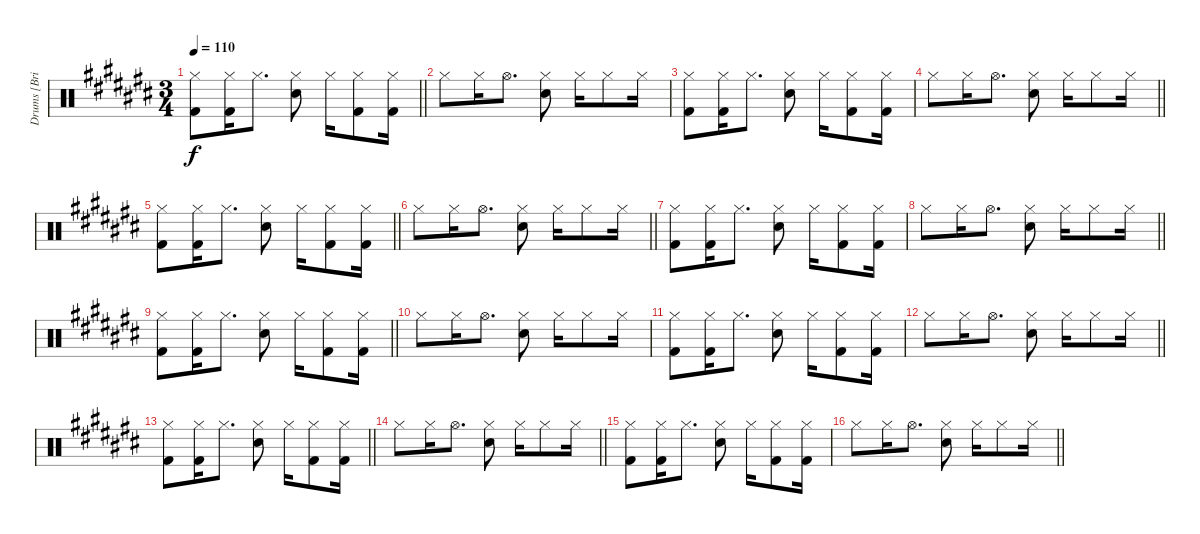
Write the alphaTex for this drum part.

\track ("Drums [Brian \"Brain\" Mantia]" "Drums [Bri") {instrument percussion}
\staff {score}
\articulation defaults
\ts (3 4)
\tempo 110
\clef neutral
\barLineRight lightlight
\ks c#
("Hi-Hat (closed)" "Kick (hit) 2").8{dy f} ("Hi-Hat (closed)" "Kick (hit) 2").16 "Hi-Hat (closed)".8{d} ("Hi-Hat (closed)" "Electric Snare (hit)").8 "Hi-Hat (closed)".16 ("Hi-Hat (closed)" "Kick (hit) 2").8 ("Hi-Hat (closed)" "Kick (hit) 2").16 |
"Hi-Hat (closed)".8 "Hi-Hat (closed)".16 "Hi-Hat (open)".8{d} ("Hi-Hat (closed)" "Electric Snare (hit)").8 "Hi-Hat (closed)".16 "Hi-Hat (closed)".8 "Hi-Hat (closed)".16 |
("Hi-Hat (closed)" "Kick (hit) 2").8 ("Hi-Hat (closed)" "Kick (hit) 2").16 "Hi-Hat (closed)".8{d} ("Hi-Hat (closed)" "Electric Snare (hit)").8 "Hi-Hat (closed)".16 ("Hi-Hat (closed)" "Kick (hit) 2").8 ("Hi-Hat (closed)" "Kick (hit) 2").16 |
\barLineRight lightlight "Hi-Hat (closed)".8 "Hi-Hat (closed)".16 "Hi-Hat (open)".8{d}
("Hi-Hat (closed)" "Electric Snare (hit)").8 "Hi-Hat (closed)".16 "Hi-Hat (closed)".8 "Hi-Hat (closed)".16 |
\barLineRight lightlight
("Hi-Hat (closed)" "Kick (hit) 2").8 ("Hi-Hat (closed)" "Kick (hit) 2").16 "Hi-Hat (closed)".8{d} ("Hi-Hat (closed)" "Electric Snare (hit)").8 "Hi-Hat (closed)".16 ("Hi-Hat (closed)" "Kick (hit) 2").8 ("Hi-Hat (closed)" "Kick (hit) 2").16 |
\barLineRight lightlight "Hi-Hat (closed)".8 "Hi-Hat (closed)".16 "Hi-Hat (open)".8{d}
("Hi-Hat (closed)" "Electric Snare (hit)").8 "Hi-Hat (closed)".16 "Hi-Hat (closed)".8 "Hi-Hat (closed)".16 |
\section ("" "")
("Hi-Hat (closed)" "Kick (hit) 2").8 ("Hi-Hat (closed)" "Kick (hit) 2").16 "Hi-Hat (closed)".8{d} ("Hi-Hat (closed)" "Electric Snare (hit)").8 "Hi-Hat (closed)".16 ("Hi-Hat (closed)" "Kick (hit) 2").8 ("Hi-Hat (closed)" "Kick (hit) 2").16 |
\barLineRight lightlight "Hi-Hat (closed)".8 "Hi-Hat (closed)".16 "Hi-Hat (open)".8{d}
("Hi-Hat (closed)" "Electric Snare (hit)").8 "Hi-Hat (closed)".16 "Hi-Hat (closed)".8 "Hi-Hat (closed)".16 |
\barLineRight lightlight
("Hi-Hat (closed)" "Kick (hit) 2").8 ("Hi-Hat (closed)" "Kick (hit) 2").16 "Hi-Hat (closed)".8{d} ("Hi-Hat (closed)" "Electric Snare (hit)").8 "Hi-Hat (closed)".16 ("Hi-Hat (closed)" "Kick (hit) 2").8 ("Hi-Hat (closed)" "Kick (hit) 2").16 |
"Hi-Hat (closed)".8 "Hi-Hat (closed)".16 "Hi-Hat (open)".8{d} ("Hi-Hat (closed)" "Electric Snare (hit)").8 "Hi-Hat (closed)".16 "Hi-Hat (closed)".8 "Hi-Hat (closed)".16 |
("Hi-Hat (closed)" "Kick (hit) 2").8 ("Hi-Hat (closed)" "Kick (hit) 2").16 "Hi-Hat (closed)".8{d} ("Hi-Hat (closed)" "Electric Snare (hit)").8 "Hi-Hat (closed)".16 ("Hi-Hat (closed)" "Kick (hit) 2").8 ("Hi-Hat (closed)" "Kick (hit) 2").16 |
\barLineRight lightlight "Hi-Hat (closed)".8 "Hi-Hat (closed)".16 "Hi-Hat (open)".8{d}
("Hi-Hat (closed)" "Electric Snare (hit)").8 "Hi-Hat (closed)".16 "Hi-Hat (closed)".8 "Hi-Hat (closed)".16 |
\barLineRight lightlight
("Hi-Hat (closed)" "Kick (hit) 2").8 ("Hi-Hat (closed)" "Kick (hit) 2").16 "Hi-Hat (closed)".8{d} ("Hi-Hat (closed)" "Electric Snare (hit)").8 "Hi-Hat (closed)".16 ("Hi-Hat (closed)" "Kick (hit) 2").8 ("Hi-Hat (closed)" "Kick (hit) 2").16 |
\barLineRight lightlight "Hi-Hat (closed)".8 "Hi-Hat (closed)".16 "Hi-Hat (open)".8{d}
("Hi-Hat (closed)" "Electric Snare (hit)").8 "Hi-Hat (closed)".16 "Hi-Hat (closed)".8 "Hi-Hat (closed)".16 |
\section ("" "")
("Hi-Hat (closed)" "Kick (hit) 2").8 ("Hi-Hat (closed)" "Kick (hit) 2").16 "Hi-Hat (closed)".8{d} ("Hi-Hat (closed)" "Electric Snare (hit)").8 "Hi-Hat (closed)".16 ("Hi-Hat (closed)" "Kick (hit) 2").8 ("Hi-Hat (closed)" "Kick (hit) 2").16 |
\barLineRight lightlight "Hi-Hat (closed)".8 "Hi-Hat (closed)".16 "Hi-Hat (open)".8{d}
("Hi-Hat (closed)" "Electric Snare (hit)").8 "Hi-Hat (closed)".16 "Hi-Hat (closed)".8 "Hi-Hat (closed)".16
